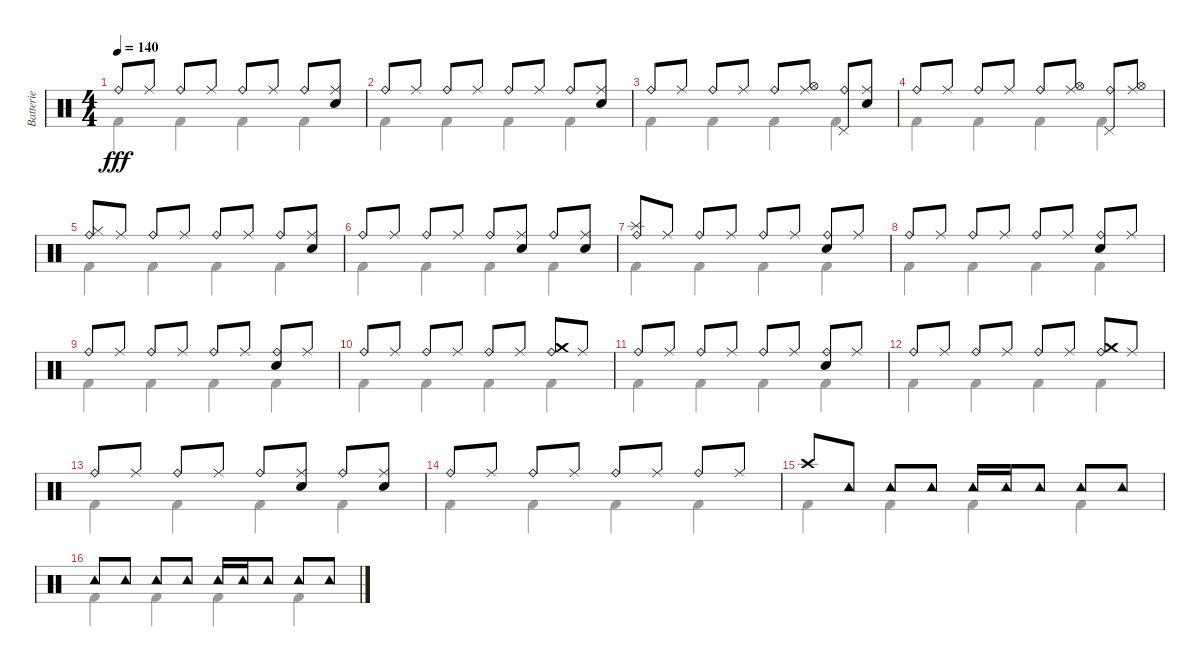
\track ("Batterie" "Batterie") {instrument percussion}
\staff {score}
\articulation defaults
\voice
\ts (4 4)
\tempo 140
\clef neutral
\ks c "Ride (bell)".8{dy fff} "Ride (middle)".8 "Ride (bell)".8 "Ride (middle)".8 "Ride (bell)".8 "Ride (middle)".8 "Ride (bell)".8
("Ride (middle)" "Electric Snare (hit)").8 |
"Ride (bell)".8 "Ride (middle)".8 "Ride (bell)".8 "Ride (middle)".8 "Ride (bell)".8 "Ride (middle)".8 "Ride (bell)".8 ("Ride (middle)" "Electric Snare (hit)").8 |
"Ride (bell)".8 "Ride (middle)".8 "Ride (bell)".8 "Ride (middle)".8 "Ride (bell)".8 ("Ride (middle)" "Hi-Hat (open)").8 ("Ride (bell)" "Pedal Hi-Hat (hit)").8 ("Ride (middle)" "Electric Snare (hit)").8 |
"Ride (bell)".8 "Ride (middle)".8 "Ride (bell)".8 "Ride (middle)".8 "Ride (bell)".8 ("Ride (middle)" "Hi-Hat (open)").8 ("Ride (bell)" "Pedal Hi-Hat (hit)").8 ("Ride (middle)" "Hi-Hat (open)").8 |
("Ride (bell)" "Hi-Hat (closed)").8 "Ride (middle)".8 "Ride (bell)".8 "Ride (middle)".8 "Ride (bell)".8 "Ride (middle)".8 "Ride (bell)".8 ("Ride (middle)" "Electric Snare (hit)").8 |
"Ride (bell)".8 "Ride (middle)".8 "Ride (bell)".8 "Ride (middle)".8 "Ride (bell)".8 ("Ride (middle)" "Electric Snare (hit)").8 "Ride (bell)".8 ("Ride (middle)" "Electric Snare (hit)").8 |
("Ride (bell)" "Splash (hit)").8 "Ride (middle)".8 "Ride (bell)".8 "Ride (middle)".8 "Ride (bell)".8 "Ride (middle)".8 ("Ride (bell)" "Electric Snare (hit)").8 "Ride (middle)".8 |
"Ride (bell)".8 "Ride (middle)".8 "Ride (bell)".8 "Ride (middle)".8 "Ride (bell)".8 "Ride (middle)".8 ("Ride (bell)" "Electric Snare (hit)").8 "Ride (middle)".8 |
"Ride (bell)".8 "Ride (middle)".8 "Ride (bell)".8 "Ride (middle)".8 "Ride (bell)".8 "Ride (middle)".8 ("Ride (bell)" "Electric Snare (hit)").8 "Ride (middle)".8 |
"Ride (bell)".8 "Ride (middle)".8 "Ride (bell)".8 "Ride (middle)".8 "Ride (bell)".8 "Ride (middle)".8 ("Ride (bell)" "Crash medium (hit)").8 "Ride (middle)".8 |
"Ride (bell)".8 "Ride (middle)".8 "Ride (bell)".8 "Ride (middle)".8 "Ride (bell)".8 "Ride (middle)".8 ("Ride (bell)" "Electric Snare (hit)").8 "Ride (middle)".8 |
"Ride (bell)".8 "Ride (middle)".8 "Ride (bell)".8 "Ride (middle)".8 "Ride (bell)".8 "Ride (middle)".8 ("Ride (bell)" "Crash medium (hit)").8 "Ride (middle)".8 |
"Ride (bell)".8 "Ride (middle)".8 "Ride (bell)".8 "Ride (middle)".8 "Ride (bell)".8 ("Ride (middle)" "Electric Snare (hit)").8 "Ride (bell)".8 ("Ride (middle)" "Electric Snare (hit)").8 |
"Ride (bell)".8 "Ride (middle)".8 "Ride (bell)".8 "Ride (middle)".8 "Ride (bell)".8 "Ride (middle)".8 "Ride (bell)".8 "Ride (middle)".8 |
"Crash high (hit)".8 "Tambourine (hit)".8 "Tambourine (hit)".8 "Tambourine (hit)".8 "Tambourine (hit)".16 "Tambourine (hit)".16 "Tambourine (hit)".8 "Tambourine (hit)".8 "Tambourine (hit)".8 |
"Tambourine (hit)".8 "Tambourine (hit)".8 "Tambourine (hit)".8 "Tambourine (hit)".8 "Tambourine (hit)".16 "Tambourine (hit)".16 "Tambourine (hit)".8 "Tambourine (hit)".8 "Tambourine (hit)".8
\voice
\clef neutral
\ottava regular
\simile none
\ks c "Kick (hit) 2".4{dy fff} "Kick (hit) 2".4 "Kick (hit) 2".4 "Kick (hit) 2".4
|
"Kick (hit) 2".4 "Kick (hit) 2".4 "Kick (hit) 2".4 "Kick (hit) 2".4 |
"Kick (hit) 2".4 "Kick (hit) 2".4 "Kick (hit) 2".4 "Kick (hit) 2".4 |
"Kick (hit) 2".4 "Kick (hit) 2".4 "Kick (hit) 2".4 "Kick (hit) 2".4 |
"Kick (hit) 2".4 "Kick (hit) 2".4 "Kick (hit) 2".4 "Kick (hit) 2".4 |
"Kick (hit) 2".4 "Kick (hit) 2".4 "Kick (hit) 2".4 "Kick (hit) 2".4 |
"Kick (hit) 2".4 "Kick (hit) 2".4 "Kick (hit) 2".4 "Kick (hit) 2".4 |
"Kick (hit) 2".4 "Kick (hit) 2".4 "Kick (hit) 2".4 "Kick (hit) 2".4 |
"Kick (hit) 2".4 "Kick (hit) 2".4 "Kick (hit) 2".4 "Kick (hit) 2".4 |
"Kick (hit) 2".4 "Kick (hit) 2".4 "Kick (hit) 2".4 "Kick (hit) 2".4 |
"Kick (hit) 2".4 "Kick (hit) 2".4 "Kick (hit) 2".4 "Kick (hit) 2".4 |
"Kick (hit) 2".4 "Kick (hit) 2".4 "Kick (hit) 2".4 "Kick (hit) 2".4 |
"Kick (hit) 2".4 "Kick (hit) 2".4 "Kick (hit) 2".4 "Kick (hit) 2".4 |
"Kick (hit) 2".4 "Kick (hit) 2".4 "Kick (hit) 2".4 "Kick (hit) 2".4 |
"Kick (hit) 2".4 "Kick (hit) 2".4 "Kick (hit) 2".4 "Kick (hit) 2".4 |
"Kick (hit) 2".4 "Kick (hit) 2".4 "Kick (hit) 2".4 "Kick (hit) 2".4
